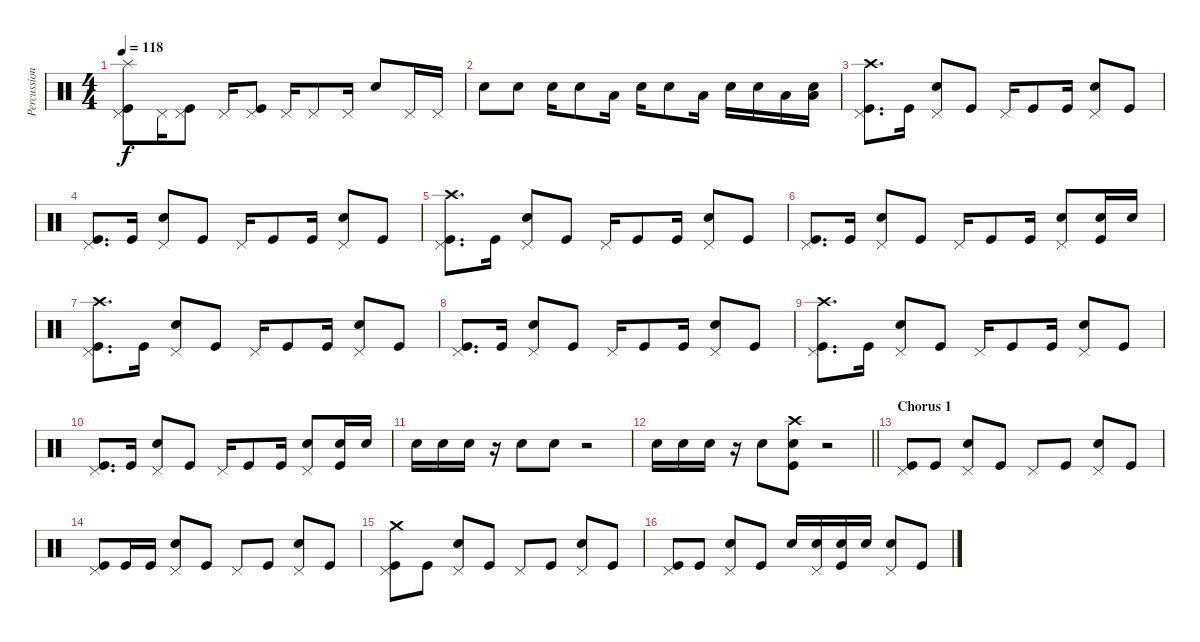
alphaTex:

\track ("Percussion" "Percussion") {instrument percussion}
\staff {score}
\articulation defaults
\ts (4 4)
\tempo 118
\clef neutral
\ks c
("Splash (hit)" "Pedal Hi-Hat (hit)" "Kick (hit)").8{dy f} "Pedal Hi-Hat (hit)".16 ("Pedal Hi-Hat (hit)" "Kick (hit)").8 "Pedal Hi-Hat (hit)".16 ("Pedal Hi-Hat (hit)" "Kick (hit)").8 "Pedal Hi-Hat (hit)".16 "Pedal Hi-Hat (hit)".8 "Pedal Hi-Hat (hit)".16 "Electric Snare (hit)".8 "Pedal Hi-Hat (hit)".16 "Pedal Hi-Hat (hit)".16 |
"Electric Snare (hit)".8 "Electric Snare (hit)".8 "Electric Snare (hit)".16 "Electric Snare (hit)".8 "Low Tom (hit)".16 "Electric Snare (hit)".16 "Electric Snare (hit)".8 "Low Tom (hit)".16 "Electric Snare (hit)".16 "Electric Snare (hit)".16 "Low Tom (hit)".16 ("Electric Snare (hit)" "Low Tom (hit)").16 |
("Crash high (hit)" "Pedal Hi-Hat (hit)" "Kick (hit)").8{d} "Kick (hit)".16 ("Pedal Hi-Hat (hit)" "Electric Snare (hit)").8 "Kick (hit)".8 "Pedal Hi-Hat (hit)".16 "Kick (hit)".8 "Kick (hit)".16 ("Pedal Hi-Hat (hit)" "Electric Snare (hit)").8 "Kick (hit)".8 |
("Pedal Hi-Hat (hit)" "Kick (hit)").8{d} "Kick (hit)".16 ("Pedal Hi-Hat (hit)" "Electric Snare (hit)").8 "Kick (hit)".8 "Pedal Hi-Hat (hit)".16 "Kick (hit)".8 "Kick (hit)".16 ("Pedal Hi-Hat (hit)" "Electric Snare (hit)").8 "Kick (hit)".8 |
("Crash high (hit)" "Pedal Hi-Hat (hit)" "Kick (hit)").8{d} "Kick (hit)".16 ("Pedal Hi-Hat (hit)" "Electric Snare (hit)").8 "Kick (hit)".8 "Pedal Hi-Hat (hit)".16 "Kick (hit)".8 "Kick (hit)".16 ("Pedal Hi-Hat (hit)" "Electric Snare (hit)").8 "Kick (hit)".8 |
("Pedal Hi-Hat (hit)" "Kick (hit)").8{d} "Kick (hit)".16 ("Pedal Hi-Hat (hit)" "Electric Snare (hit)").8 "Kick (hit)".8 "Pedal Hi-Hat (hit)".16 "Kick (hit)".8 "Kick (hit)".16 ("Pedal Hi-Hat (hit)" "Electric Snare (hit)").8 ("Electric Snare (hit)" "Kick (hit)").16 "Electric Snare (hit)".16 |
("Crash high (hit)" "Pedal Hi-Hat (hit)" "Kick (hit)").8{d} "Kick (hit)".16 ("Pedal Hi-Hat (hit)" "Electric Snare (hit)").8 "Kick (hit)".8 "Pedal Hi-Hat (hit)".16 "Kick (hit)".8 "Kick (hit)".16 ("Pedal Hi-Hat (hit)" "Electric Snare (hit)").8 "Kick (hit)".8 |
("Pedal Hi-Hat (hit)" "Kick (hit)").8{d} "Kick (hit)".16 ("Pedal Hi-Hat (hit)" "Electric Snare (hit)").8 "Kick (hit)".8 "Pedal Hi-Hat (hit)".16 "Kick (hit)".8 "Kick (hit)".16 ("Pedal Hi-Hat (hit)" "Electric Snare (hit)").8 "Kick (hit)".8 |
("Crash high (hit)" "Pedal Hi-Hat (hit)" "Kick (hit)").8{d} "Kick (hit)".16 ("Pedal Hi-Hat (hit)" "Electric Snare (hit)").8 "Kick (hit)".8 "Pedal Hi-Hat (hit)".16 "Kick (hit)".8 "Kick (hit)".16 ("Pedal Hi-Hat (hit)" "Electric Snare (hit)").8 "Kick (hit)".8 |
("Pedal Hi-Hat (hit)" "Kick (hit)").8{d} "Kick (hit)".16 ("Pedal Hi-Hat (hit)" "Electric Snare (hit)").8 "Kick (hit)".8 "Pedal Hi-Hat (hit)".16 "Kick (hit)".8 "Kick (hit)".16 ("Pedal Hi-Hat (hit)" "Electric Snare (hit)").8 ("Electric Snare (hit)" "Kick (hit)").16 "Electric Snare (hit)".16 |
"Electric Snare (hit)".16 "Electric Snare (hit)".16 "Electric Snare (hit)".16 r.16 "Electric Snare (hit)".8 "Electric Snare (hit)".8 r.2 |
\barLineRight lightlight "Electric Snare (hit)".16 "Electric Snare (hit)".16 "Electric Snare (hit)".16
r.16 "Electric Snare (hit)".8 ("Kick (hit)" "Crash high (hit)" "Electric Snare (hit)").8 r.2 |
\section ("" "Chorus 1")
("Pedal Hi-Hat (hit)" "Kick (hit)").8 "Kick (hit)".8 ("Pedal Hi-Hat (hit)" "Electric Snare (hit)").8 "Kick (hit)".8 "Pedal Hi-Hat (hit)".8 "Kick (hit)".8 ("Pedal Hi-Hat (hit)" "Electric Snare (hit)").8 "Kick (hit)".8 |
("Pedal Hi-Hat (hit)" "Kick (hit)").8 "Kick (hit)".16 "Kick (hit)".16 ("Pedal Hi-Hat (hit)" "Electric Snare (hit)").8 "Kick (hit)".8 "Pedal Hi-Hat (hit)".8 "Kick (hit)".8 ("Pedal Hi-Hat (hit)" "Electric Snare (hit)").8 "Kick (hit)".8 |
("Crash medium (hit)" "Pedal Hi-Hat (hit)" "Kick (hit)").8 "Kick (hit)".8 ("Pedal Hi-Hat (hit)" "Electric Snare (hit)").8 "Kick (hit)".8 "Pedal Hi-Hat (hit)".8 "Kick (hit)".8 ("Pedal Hi-Hat (hit)" "Electric Snare (hit)").8 "Kick (hit)".8 |
("Pedal Hi-Hat (hit)" "Kick (hit)").8 "Kick (hit)".8 ("Pedal Hi-Hat (hit)" "Electric Snare (hit)").8 "Kick (hit)".8 "Electric Snare (hit)".16 ("Pedal Hi-Hat (hit)" "Electric Snare (hit)").16 ("Electric Snare (hit)" "Kick (hit)").16 "Electric Snare (hit)".16 ("Pedal Hi-Hat (hit)" "Electric Snare (hit)").8 "Kick (hit)".8
